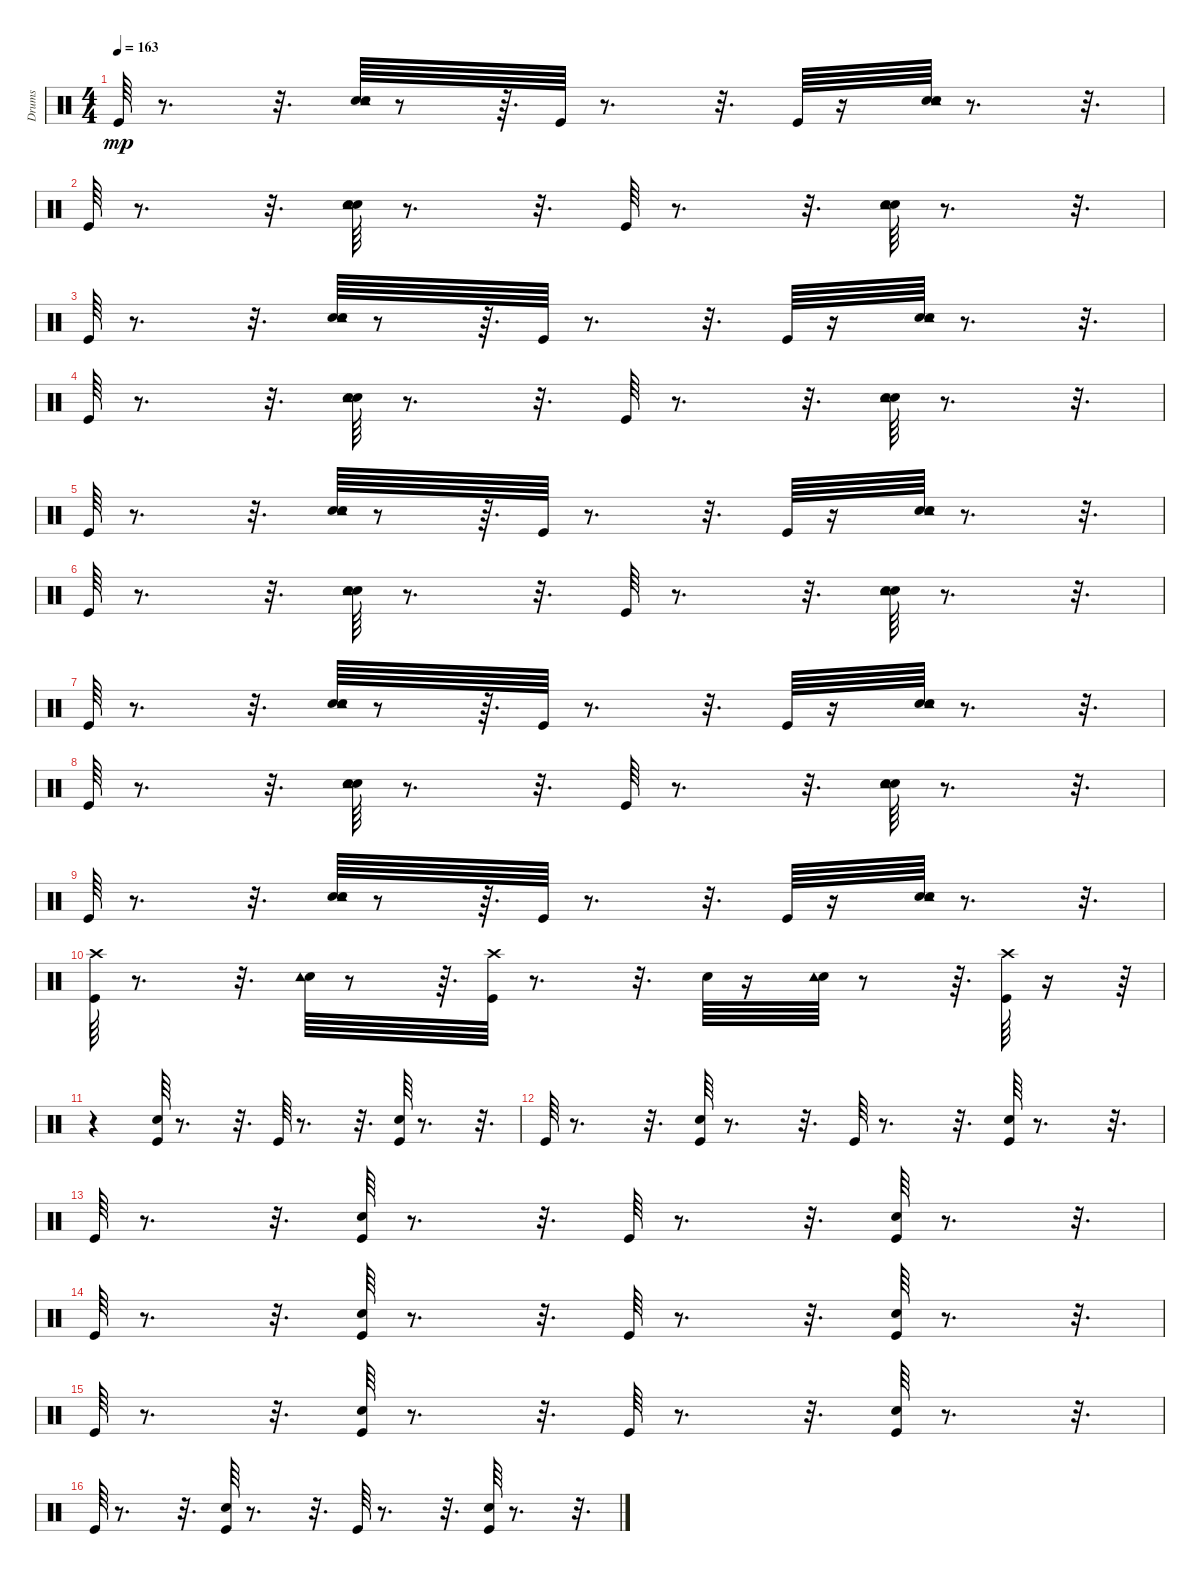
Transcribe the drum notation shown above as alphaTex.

\track ("Drums" "Drums") {instrument percussion}
\staff {score}
\articulation defaults
\ts (4 4)
\tempo 163
\clef neutral
\ks c "Kick (hit)".64{dy mp}
r.8{d} r.32{d} ("Snare (hit) 2" "Tambourine (hit)" "Hand Clap (hit)").64 r.8 r.64{d} "Kick (hit)".64 r.8{d} r.32{d} "Kick (hit)".64 r.16 ("Snare (hit) 2" "Tambourine (hit)" "Hand Clap (hit)").64 r.8{d} r.32{d} |
"Kick (hit)".64 r.8{d} r.32{d} ("Snare (hit) 2" "Tambourine (hit)" "Hand Clap (hit)").64 r.8{d} r.32{d} "Kick (hit)".64 r.8{d} r.32{d} ("Snare (hit) 2" "Tambourine (hit)" "Hand Clap (hit)").64 r.8{d} r.32{d} |
"Kick (hit)".64 r.8{d} r.32{d} ("Snare (hit) 2" "Tambourine (hit)" "Hand Clap (hit)").64 r.8 r.64{d} "Kick (hit)".64 r.8{d} r.32{d} "Kick (hit)".64 r.16 ("Snare (hit) 2" "Tambourine (hit)" "Hand Clap (hit)").64 r.8{d} r.32{d} |
"Kick (hit)".64 r.8{d} r.32{d} ("Snare (hit) 2" "Tambourine (hit)" "Hand Clap (hit)").64 r.8{d} r.32{d} "Kick (hit)".64 r.8{d} r.32{d} ("Snare (hit) 2" "Tambourine (hit)" "Hand Clap (hit)").64 r.8{d} r.32{d} |
"Kick (hit)".64 r.8{d} r.32{d} ("Snare (hit) 2" "Tambourine (hit)" "Hand Clap (hit)").64 r.8 r.64{d} "Kick (hit)".64 r.8{d} r.32{d} "Kick (hit)".64 r.16 ("Snare (hit) 2" "Tambourine (hit)" "Hand Clap (hit)").64 r.8{d} r.32{d} |
"Kick (hit)".64 r.8{d} r.32{d} ("Snare (hit) 2" "Tambourine (hit)" "Hand Clap (hit)").64 r.8{d} r.32{d} "Kick (hit)".64 r.8{d} r.32{d} ("Snare (hit) 2" "Tambourine (hit)" "Hand Clap (hit)").64 r.8{d} r.32{d} |
"Kick (hit)".64 r.8{d} r.32{d} ("Snare (hit) 2" "Tambourine (hit)" "Hand Clap (hit)").64 r.8 r.64{d} "Kick (hit)".64 r.8{d} r.32{d} "Kick (hit)".64 r.16 ("Snare (hit) 2" "Tambourine (hit)" "Hand Clap (hit)").64 r.8{d} r.32{d} |
"Kick (hit)".64 r.8{d} r.32{d} ("Snare (hit) 2" "Tambourine (hit)" "Hand Clap (hit)").64 r.8{d} r.32{d} "Kick (hit)".64 r.8{d} r.32{d} ("Snare (hit) 2" "Tambourine (hit)" "Hand Clap (hit)").64 r.8{d} r.32{d} |
"Kick (hit)".64 r.8{d} r.32{d} ("Snare (hit) 2" "Tambourine (hit)" "Hand Clap (hit)").64 r.8 r.64{d} "Kick (hit)".64 r.8{d} r.32{d} "Kick (hit)".64 r.16 ("Snare (hit) 2" "Tambourine (hit)" "Hand Clap (hit)").64 r.8{d} r.32{d} |
("Kick (hit)" "Crash high (hit)").64 r.8{d} r.32{d} ("Snare (hit) 2" "Tambourine (hit)").64 r.8 r.64{d} ("Kick (hit)" "Crash high (hit)").64 r.8{d} r.32{d} "Snare (hit) 2".64 r.16 ("Snare (hit) 2" "Tambourine (hit)").64 r.8 r.64{d} ("Kick (hit)" "Crash high (hit)").64 r.16 r.64 |
r.4 ("Kick (hit)" "Hand Clap (hit)").64 r.8{d} r.32{d} "Kick (hit)".64 r.8{d} r.32{d} ("Kick (hit)" "Hand Clap (hit)").64 r.8{d} r.32{d} |
"Kick (hit)".64 r.8{d} r.32{d} ("Kick (hit)" "Hand Clap (hit)").64 r.8{d} r.32{d} "Kick (hit)".64 r.8{d} r.32{d} ("Kick (hit)" "Hand Clap (hit)").64 r.8{d} r.32{d} |
"Kick (hit)".64 r.8{d} r.32{d} ("Kick (hit)" "Hand Clap (hit)").64 r.8{d} r.32{d} "Kick (hit)".64 r.8{d} r.32{d} ("Kick (hit)" "Hand Clap (hit)").64 r.8{d} r.32{d} |
"Kick (hit)".64 r.8{d} r.32{d} ("Kick (hit)" "Hand Clap (hit)").64 r.8{d} r.32{d} "Kick (hit)".64 r.8{d} r.32{d} ("Kick (hit)" "Hand Clap (hit)").64 r.8{d} r.32{d} |
"Kick (hit)".64 r.8{d} r.32{d} ("Kick (hit)" "Hand Clap (hit)").64 r.8{d} r.32{d} "Kick (hit)".64 r.8{d} r.32{d} ("Kick (hit)" "Hand Clap (hit)").64 r.8{d} r.32{d} |
"Kick (hit)".64 r.8{d} r.32{d} ("Kick (hit)" "Hand Clap (hit)").64 r.8{d} r.32{d} "Kick (hit)".64 r.8{d} r.32{d} ("Kick (hit)" "Hand Clap (hit)").64 r.8{d} r.32{d}
